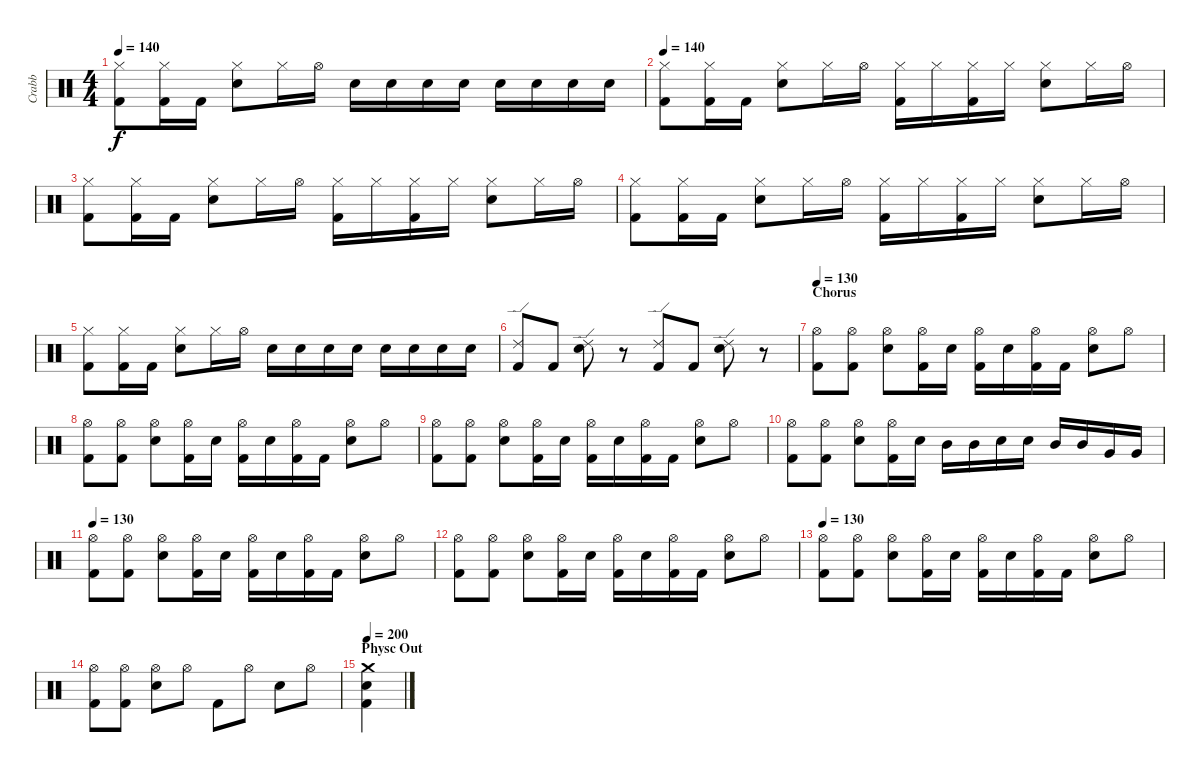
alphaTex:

\track ("Crabb" "Crabb") {instrument percussion}
\staff {score}
\articulation defaults
\ts (4 4)
\tempo 140
\clef neutral
\ks c
("Hi-Hat (closed)" "Kick (hit) 2").8{dy f} ("Hi-Hat (closed)" "Kick (hit) 2").16 "Kick (hit) 2".16 ("Hi-Hat (closed)" "Electric Snare (hit)").8 "Hi-Hat (closed)".16 "Hi-Hat (open)".16 "Electric Snare (hit)".16 "Electric Snare (hit)".16 "Electric Snare (hit)".16 "Electric Snare (hit)".16 "Electric Snare (hit)".16 "Electric Snare (hit)".16 "Electric Snare (hit)".16 "Electric Snare (hit)".16 |
\tempo 140
("Hi-Hat (closed)" "Kick (hit) 2").8 ("Hi-Hat (closed)" "Kick (hit) 2").16 "Kick (hit) 2".16 ("Hi-Hat (closed)" "Electric Snare (hit)").8 "Hi-Hat (closed)".16 "Hi-Hat (open)".16 ("Hi-Hat (closed)" "Kick (hit) 2").16 "Hi-Hat (closed)".16 ("Hi-Hat (closed)" "Kick (hit) 2").16 "Hi-Hat (closed)".16 ("Hi-Hat (closed)" "Electric Snare (hit)").8 "Hi-Hat (closed)".16 "Hi-Hat (open)".16 |
("Hi-Hat (closed)" "Kick (hit) 2").8 ("Hi-Hat (closed)" "Kick (hit) 2").16 "Kick (hit) 2".16 ("Hi-Hat (closed)" "Electric Snare (hit)").8 "Hi-Hat (closed)".16 "Hi-Hat (open)".16 ("Hi-Hat (closed)" "Kick (hit) 2").16 "Hi-Hat (closed)".16 ("Hi-Hat (closed)" "Kick (hit) 2").16 "Hi-Hat (closed)".16 ("Hi-Hat (closed)" "Electric Snare (hit)").8 "Hi-Hat (closed)".16 "Hi-Hat (open)".16 |
("Hi-Hat (closed)" "Kick (hit) 2").8 ("Hi-Hat (closed)" "Kick (hit) 2").16 "Kick (hit) 2".16 ("Hi-Hat (closed)" "Electric Snare (hit)").8 "Hi-Hat (closed)".16 "Hi-Hat (open)".16 ("Hi-Hat (closed)" "Kick (hit) 2").16 "Hi-Hat (closed)".16 ("Hi-Hat (closed)" "Kick (hit) 2").16 "Hi-Hat (closed)".16 ("Hi-Hat (closed)" "Electric Snare (hit)").8 "Hi-Hat (closed)".16 "Hi-Hat (open)".16 |
("Hi-Hat (closed)" "Kick (hit) 2").8 ("Hi-Hat (closed)" "Kick (hit) 2").16 "Kick (hit) 2".16 ("Hi-Hat (closed)" "Electric Snare (hit)").8 "Hi-Hat (closed)".16 "Hi-Hat (open)".16 "Electric Snare (hit)".16 "Electric Snare (hit)".16 "Electric Snare (hit)".16 "Electric Snare (hit)".16 "Electric Snare (hit)".16 "Electric Snare (hit)".16 "Electric Snare (hit)".16 "Electric Snare (hit)".16 |
("Ride (edge) 2" "Kick (hit) 2").8 "Kick (hit) 2".8 ("Ride (edge) 2" "Electric Snare (hit)").8 r.8 ("Ride (edge) 2" "Kick (hit) 2").8 "Kick (hit) 2".8 ("Ride (edge) 2" "Electric Snare (hit)").8 r.8 |
\section ("" "Chorus")
\tempo 160
\tempo 130
("Hi-Hat (open)" "Kick (hit) 2").8 ("Hi-Hat (open)" "Kick (hit) 2").8 ("Hi-Hat (open)" "Electric Snare (hit)").8 ("Hi-Hat (open)" "Kick (hit) 2").16 "Electric Snare (hit)".16 ("Hi-Hat (open)" "Kick (hit) 2").16 "Electric Snare (hit)".16 ("Hi-Hat (open)" "Kick (hit) 2").16 "Kick (hit) 2".16 ("Hi-Hat (open)" "Electric Snare (hit)").8 "Hi-Hat (open)".8 |
("Hi-Hat (open)" "Kick (hit) 2").8 ("Hi-Hat (open)" "Kick (hit) 2").8 ("Hi-Hat (open)" "Electric Snare (hit)").8 ("Hi-Hat (open)" "Kick (hit) 2").16 "Electric Snare (hit)".16 ("Hi-Hat (open)" "Kick (hit) 2").16 "Electric Snare (hit)".16 ("Hi-Hat (open)" "Kick (hit) 2").16 "Kick (hit) 2".16 ("Hi-Hat (open)" "Electric Snare (hit)").8 "Hi-Hat (open)".8 |
("Hi-Hat (open)" "Kick (hit) 2").8 ("Hi-Hat (open)" "Kick (hit) 2").8 ("Hi-Hat (open)" "Electric Snare (hit)").8 ("Hi-Hat (open)" "Kick (hit) 2").16 "Electric Snare (hit)".16 ("Hi-Hat (open)" "Kick (hit) 2").16 "Electric Snare (hit)".16 ("Hi-Hat (open)" "Kick (hit) 2").16 "Kick (hit) 2".16 ("Hi-Hat (open)" "Electric Snare (hit)").8 "Hi-Hat (open)".8 |
("Hi-Hat (open)" "Kick (hit) 2").8 ("Hi-Hat (open)" "Kick (hit) 2").8 ("Hi-Hat (open)" "Electric Snare (hit)").8 ("Hi-Hat (open)" "Kick (hit) 2").16 "Electric Snare (hit)".16 "Mid Tom (hit)".16 "Mid Tom (hit)".16 "Electric Snare (hit)".16 "Electric Snare (hit)".16 "Mid Tom (hit)".16 "Mid Tom (hit)".16 "Very Low Tom (hit)".16 "Very Low Tom (hit)".16 |
\tempo 130
("Hi-Hat (open)" "Kick (hit) 2").8 ("Hi-Hat (open)" "Kick (hit) 2").8 ("Hi-Hat (open)" "Electric Snare (hit)").8 ("Hi-Hat (open)" "Kick (hit) 2").16 "Electric Snare (hit)".16 ("Hi-Hat (open)" "Kick (hit) 2").16 "Electric Snare (hit)".16 ("Hi-Hat (open)" "Kick (hit) 2").16 "Kick (hit) 2".16 ("Hi-Hat (open)" "Electric Snare (hit)").8 "Hi-Hat (open)".8 |
("Hi-Hat (open)" "Kick (hit) 2").8 ("Hi-Hat (open)" "Kick (hit) 2").8 ("Hi-Hat (open)" "Electric Snare (hit)").8 ("Hi-Hat (open)" "Kick (hit) 2").16 "Electric Snare (hit)".16 ("Hi-Hat (open)" "Kick (hit) 2").16 "Electric Snare (hit)".16 ("Hi-Hat (open)" "Kick (hit) 2").16 "Kick (hit) 2".16 ("Hi-Hat (open)" "Electric Snare (hit)").8 "Hi-Hat (open)".8 |
\tempo 130
("Hi-Hat (open)" "Kick (hit) 2").8 ("Hi-Hat (open)" "Kick (hit) 2").8 ("Hi-Hat (open)" "Electric Snare (hit)").8 ("Hi-Hat (open)" "Kick (hit) 2").16 "Electric Snare (hit)".16 ("Hi-Hat (open)" "Kick (hit) 2").16 "Electric Snare (hit)".16 ("Hi-Hat (open)" "Kick (hit) 2").16 "Kick (hit) 2".16 ("Hi-Hat (open)" "Electric Snare (hit)").8 "Hi-Hat (open)".8 |
("Hi-Hat (open)" "Kick (hit) 2").8 ("Hi-Hat (open)" "Kick (hit) 2").8 ("Hi-Hat (open)" "Electric Snare (hit)").8 "Hi-Hat (open)".8 "Kick (hit) 2".8 "Hi-Hat (open)".8 "Electric Snare (hit)".8 "Hi-Hat (open)".8 |
\section ("" "Physc Out")
\tempo 200
("Crash medium (hit)" "Kick (hit) 2" "Electric Snare (hit)").4
